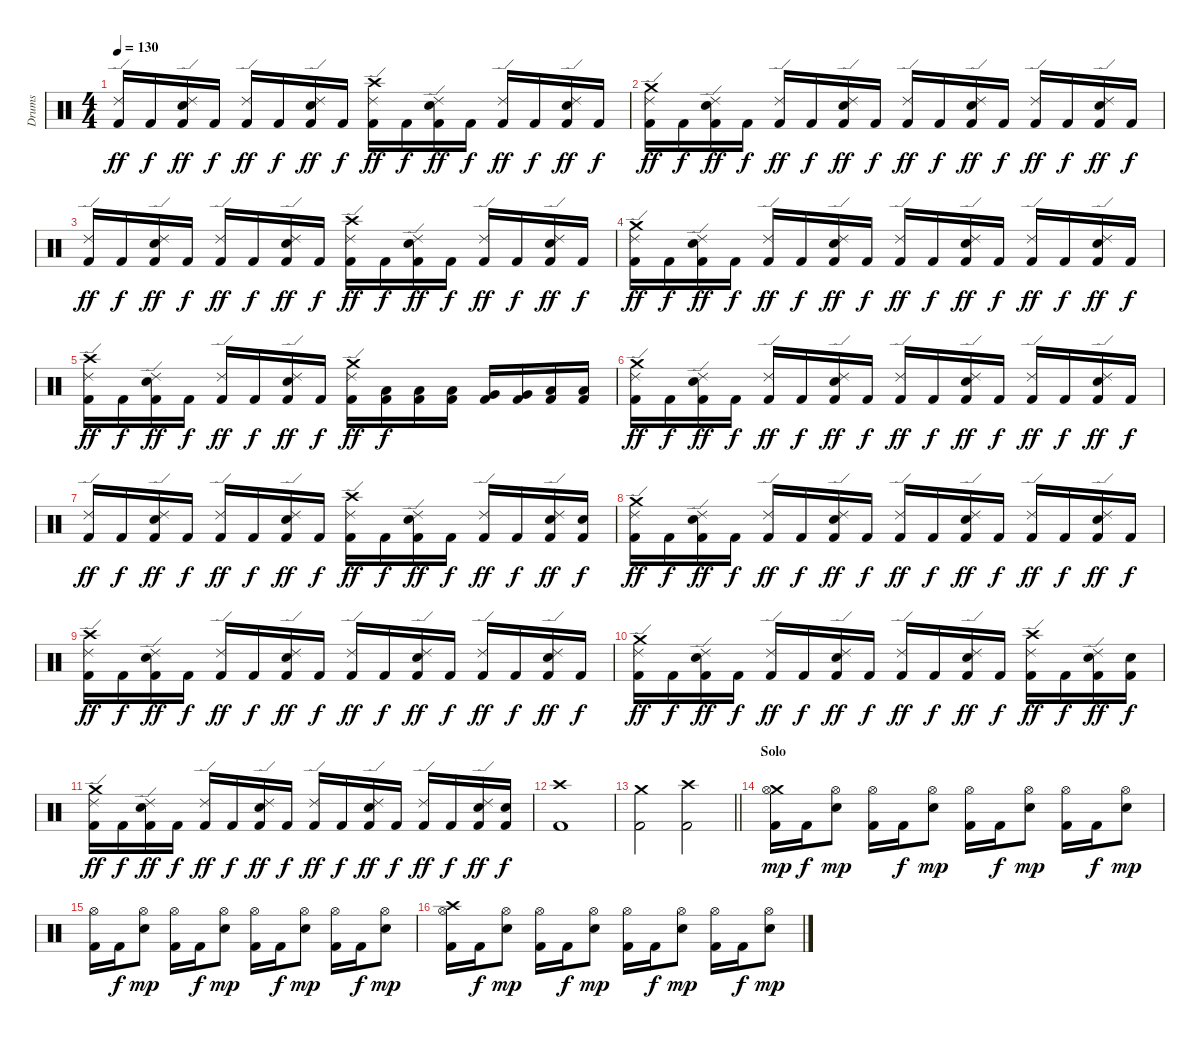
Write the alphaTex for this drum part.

\track ("Drums" "Drums") {instrument percussion}
\staff {score}
\articulation defaults
\ts (4 4)
\tempo 130
\clef neutral
\ks c
("Ride (edge) 2" "Kick (hit) 2").16{dy ff} "Kick (hit) 2".16{dy f} ("Ride (edge) 2" "Snare (hit) 2" "Kick (hit) 2").16{dy ff} "Kick (hit) 2".16{dy f} ("Ride (edge) 2" "Kick (hit) 2").16{dy ff} "Kick (hit) 2".16{dy f} ("Ride (edge) 2" "Snare (hit) 2" "Kick (hit) 2").16{dy ff} "Kick (hit) 2".16{dy f} ("Crash high (hit)" "Ride (edge) 2" "Kick (hit) 2").16{dy ff} "Kick (hit) 2".16{dy f} ("Ride (edge) 2" "Snare (hit) 2" "Kick (hit) 2").16{dy ff} "Kick (hit) 2".16{dy f} ("Ride (edge) 2" "Kick (hit) 2").16{dy ff} "Kick (hit) 2".16{dy f} ("Ride (edge) 2" "Snare (hit) 2" "Kick (hit) 2").16{dy ff} "Kick (hit) 2".16{dy f} |
("Crash medium (hit)" "Ride (edge) 2" "Kick (hit) 2").16{dy ff} "Kick (hit) 2".16{dy f} ("Ride (edge) 2" "Snare (hit) 2" "Kick (hit) 2").16{dy ff} "Kick (hit) 2".16{dy f} ("Ride (edge) 2" "Kick (hit) 2").16{dy ff} "Kick (hit) 2".16{dy f} ("Ride (edge) 2" "Snare (hit) 2" "Kick (hit) 2").16{dy ff} "Kick (hit) 2".16{dy f} ("Ride (edge) 2" "Kick (hit) 2").16{dy ff} "Kick (hit) 2".16{dy f} ("Ride (edge) 2" "Snare (hit) 2" "Kick (hit) 2").16{dy ff} "Kick (hit) 2".16{dy f} ("Ride (edge) 2" "Kick (hit) 2").16{dy ff} "Kick (hit) 2".16{dy f} ("Ride (edge) 2" "Snare (hit) 2" "Kick (hit) 2").16{dy ff} "Kick (hit) 2".16{dy f} |
("Ride (edge) 2" "Kick (hit) 2").16{dy ff} "Kick (hit) 2".16{dy f} ("Ride (edge) 2" "Snare (hit) 2" "Kick (hit) 2").16{dy ff} "Kick (hit) 2".16{dy f} ("Ride (edge) 2" "Kick (hit) 2").16{dy ff} "Kick (hit) 2".16{dy f} ("Ride (edge) 2" "Snare (hit) 2" "Kick (hit) 2").16{dy ff} "Kick (hit) 2".16{dy f} ("Crash high (hit)" "Ride (edge) 2" "Kick (hit) 2").16{dy ff} "Kick (hit) 2".16{dy f} ("Ride (edge) 2" "Snare (hit) 2" "Kick (hit) 2").16{dy ff} "Kick (hit) 2".16{dy f} ("Ride (edge) 2" "Kick (hit) 2").16{dy ff} "Kick (hit) 2".16{dy f} ("Ride (edge) 2" "Snare (hit) 2" "Kick (hit) 2").16{dy ff} "Kick (hit) 2".16{dy f} |
("Crash medium (hit)" "Ride (edge) 2" "Kick (hit) 2").16{dy ff} "Kick (hit) 2".16{dy f} ("Ride (edge) 2" "Snare (hit) 2" "Kick (hit) 2").16{dy ff} "Kick (hit) 2".16{dy f} ("Ride (edge) 2" "Kick (hit) 2").16{dy ff} "Kick (hit) 2".16{dy f} ("Ride (edge) 2" "Snare (hit) 2" "Kick (hit) 2").16{dy ff} "Kick (hit) 2".16{dy f} ("Ride (edge) 2" "Kick (hit) 2").16{dy ff} "Kick (hit) 2".16{dy f} ("Ride (edge) 2" "Snare (hit) 2" "Kick (hit) 2").16{dy ff} "Kick (hit) 2".16{dy f} ("Ride (edge) 2" "Kick (hit) 2").16{dy ff} "Kick (hit) 2".16{dy f} ("Ride (edge) 2" "Snare (hit) 2" "Kick (hit) 2").16{dy ff} "Kick (hit) 2".16{dy f} |
("Crash high (hit)" "Ride (edge) 2" "Kick (hit) 2").16{dy ff} "Kick (hit) 2".16{dy f} ("Ride (edge) 2" "Snare (hit) 2" "Kick (hit) 2").16{dy ff} "Kick (hit) 2".16{dy f} ("Ride (edge) 2" "Kick (hit) 2").16{dy ff} "Kick (hit) 2".16{dy f} ("Ride (edge) 2" "Snare (hit) 2" "Kick (hit) 2").16{dy ff} "Kick (hit) 2".16{dy f} ("Crash medium (hit)" "Ride (edge) 2" "Kick (hit) 2").16{dy ff} ("Low Tom (hit)" "Kick (hit) 2").16{dy f} ("Low Tom (hit)" "Kick (hit) 2").16 ("Low Tom (hit)" "Kick (hit) 2").16 ("Very Low Tom (hit)" "Kick (hit) 2").16 ("Very Low Tom (hit)" "Kick (hit) 2").16 ("Low Floor Tom (hit)" "Kick (hit) 2").16 ("Low Floor Tom (hit)" "Kick (hit) 2").16 |
("Crash medium (hit)" "Ride (edge) 2" "Kick (hit) 2").16{dy ff} "Kick (hit) 2".16{dy f} ("Ride (edge) 2" "Snare (hit) 2" "Kick (hit) 2").16{dy ff} "Kick (hit) 2".16{dy f} ("Ride (edge) 2" "Kick (hit) 2").16{dy ff} "Kick (hit) 2".16{dy f} ("Ride (edge) 2" "Snare (hit) 2" "Kick (hit) 2").16{dy ff} "Kick (hit) 2".16{dy f} ("Ride (edge) 2" "Kick (hit) 2").16{dy ff} "Kick (hit) 2".16{dy f} ("Ride (edge) 2" "Snare (hit) 2" "Kick (hit) 2").16{dy ff} "Kick (hit) 2".16{dy f} ("Ride (edge) 2" "Kick (hit) 2").16{dy ff} "Kick (hit) 2".16{dy f} ("Ride (edge) 2" "Snare (hit) 2" "Kick (hit) 2").16{dy ff} "Kick (hit) 2".16{dy f} |
("Ride (edge) 2" "Kick (hit) 2").16{dy ff} "Kick (hit) 2".16{dy f} ("Ride (edge) 2" "Snare (hit) 2" "Kick (hit) 2").16{dy ff} "Kick (hit) 2".16{dy f} ("Ride (edge) 2" "Kick (hit) 2").16{dy ff} "Kick (hit) 2".16{dy f} ("Ride (edge) 2" "Snare (hit) 2" "Kick (hit) 2").16{dy ff} "Kick (hit) 2".16{dy f} ("Crash high (hit)" "Ride (edge) 2" "Kick (hit) 2").16{dy ff} "Kick (hit) 2".16{dy f} ("Ride (edge) 2" "Snare (hit) 2" "Kick (hit) 2").16{dy ff} "Kick (hit) 2".16{dy f} ("Ride (edge) 2" "Kick (hit) 2").16{dy ff} "Kick (hit) 2".16{dy f} ("Ride (edge) 2" "Snare (hit) 2" "Kick (hit) 2").16{dy ff} ("Snare (hit) 2" "Kick (hit) 2").16{dy f} |
("Crash medium (hit)" "Ride (edge) 2" "Kick (hit) 2").16{dy ff} "Kick (hit) 2".16{dy f} ("Ride (edge) 2" "Snare (hit) 2" "Kick (hit) 2").16{dy ff} "Kick (hit) 2".16{dy f} ("Ride (edge) 2" "Kick (hit) 2").16{dy ff} "Kick (hit) 2".16{dy f} ("Ride (edge) 2" "Snare (hit) 2" "Kick (hit) 2").16{dy ff} "Kick (hit) 2".16{dy f} ("Ride (edge) 2" "Kick (hit) 2").16{dy ff} "Kick (hit) 2".16{dy f} ("Ride (edge) 2" "Snare (hit) 2" "Kick (hit) 2").16{dy ff} "Kick (hit) 2".16{dy f} ("Ride (edge) 2" "Kick (hit) 2").16{dy ff} "Kick (hit) 2".16{dy f} ("Ride (edge) 2" "Snare (hit) 2" "Kick (hit) 2").16{dy ff} "Kick (hit) 2".16{dy f} |
("Crash high (hit)" "Ride (edge) 2" "Kick (hit) 2").16{dy ff} "Kick (hit) 2".16{dy f} ("Ride (edge) 2" "Snare (hit) 2" "Kick (hit) 2").16{dy ff} "Kick (hit) 2".16{dy f} ("Ride (edge) 2" "Kick (hit) 2").16{dy ff} "Kick (hit) 2".16{dy f} ("Ride (edge) 2" "Snare (hit) 2" "Kick (hit) 2").16{dy ff} "Kick (hit) 2".16{dy f} ("Ride (edge) 2" "Kick (hit) 2").16{dy ff} "Kick (hit) 2".16{dy f} ("Ride (edge) 2" "Snare (hit) 2" "Kick (hit) 2").16{dy ff} "Kick (hit) 2".16{dy f} ("Ride (edge) 2" "Kick (hit) 2").16{dy ff} "Kick (hit) 2".16{dy f} ("Ride (edge) 2" "Snare (hit) 2" "Kick (hit) 2").16{dy ff} "Kick (hit) 2".16{dy f} |
("Crash medium (hit)" "Ride (edge) 2" "Kick (hit) 2").16{dy ff} "Kick (hit) 2".16{dy f} ("Ride (edge) 2" "Snare (hit) 2" "Kick (hit) 2").16{dy ff} "Kick (hit) 2".16{dy f} ("Ride (edge) 2" "Kick (hit) 2").16{dy ff} "Kick (hit) 2".16{dy f} ("Ride (edge) 2" "Snare (hit) 2" "Kick (hit) 2").16{dy ff} "Kick (hit) 2".16{dy f} ("Ride (edge) 2" "Kick (hit) 2").16{dy ff} "Kick (hit) 2".16{dy f} ("Ride (edge) 2" "Snare (hit) 2" "Kick (hit) 2").16{dy ff} "Kick (hit) 2".16{dy f} ("Crash high (hit)" "Ride (edge) 2" "Kick (hit) 2").16{dy ff} "Kick (hit) 2".16{dy f} ("Ride (edge) 2" "Snare (hit) 2" "Kick (hit) 2").16{dy ff} ("Snare (hit) 2" "Kick (hit) 2").16{dy f} |
("Crash medium (hit)" "Ride (edge) 2" "Kick (hit) 2").16{dy ff} "Kick (hit) 2".16{dy f} ("Ride (edge) 2" "Snare (hit) 2" "Kick (hit) 2").16{dy ff} "Kick (hit) 2".16{dy f} ("Ride (edge) 2" "Kick (hit) 2").16{dy ff} "Kick (hit) 2".16{dy f} ("Ride (edge) 2" "Snare (hit) 2" "Kick (hit) 2").16{dy ff} "Kick (hit) 2".16{dy f} ("Ride (edge) 2" "Kick (hit) 2").16{dy ff} "Kick (hit) 2".16{dy f} ("Ride (edge) 2" "Snare (hit) 2" "Kick (hit) 2").16{dy ff} "Kick (hit) 2".16{dy f} ("Ride (edge) 2" "Kick (hit) 2").16{dy ff} "Kick (hit) 2".16{dy f} ("Ride (edge) 2" "Snare (hit) 2" "Kick (hit) 2").16{dy ff} ("Snare (hit) 2" "Kick (hit) 2").16{dy f} |
("Crash high (hit)" "Kick (hit) 2").1 |
\barLineRight lightlight
("Crash medium (hit)" "Kick (hit) 2").2 ("Crash high (hit)" "Kick (hit) 2").2 |
\section ("" "Solo")
("Crash medium (hit)" "Hi-Hat (open)" "Kick (hit) 2").16{dy mp} "Kick (hit) 2".16{dy f} ("Hi-Hat (open)" "Snare (hit) 2").8{dy mp} ("Hi-Hat (open)" "Kick (hit) 2").16 "Kick (hit) 2".16{dy f} ("Hi-Hat (open)" "Snare (hit) 2").8{dy mp} ("Hi-Hat (open)" "Kick (hit) 2").16 "Kick (hit) 2".16{dy f} ("Hi-Hat (open)" "Snare (hit) 2").8{dy mp} ("Hi-Hat (open)" "Kick (hit) 2").16 "Kick (hit) 2".16{dy f} ("Hi-Hat (open)" "Snare (hit) 2").8{dy mp} |
("Hi-Hat (open)" "Kick (hit) 2").16 "Kick (hit) 2".16{dy f} ("Hi-Hat (open)" "Snare (hit) 2").8{dy mp} ("Hi-Hat (open)" "Kick (hit) 2").16 "Kick (hit) 2".16{dy f} ("Hi-Hat (open)" "Snare (hit) 2").8{dy mp} ("Hi-Hat (open)" "Kick (hit) 2").16 "Kick (hit) 2".16{dy f} ("Hi-Hat (open)" "Snare (hit) 2").8{dy mp} ("Hi-Hat (open)" "Kick (hit) 2").16 "Kick (hit) 2".16{dy f} ("Hi-Hat (open)" "Snare (hit) 2").8{dy mp} |
("Crash high (hit)" "Hi-Hat (open)" "Kick (hit) 2").16 "Kick (hit) 2".16{dy f} ("Hi-Hat (open)" "Snare (hit) 2").8{dy mp} ("Hi-Hat (open)" "Kick (hit) 2").16 "Kick (hit) 2".16{dy f} ("Hi-Hat (open)" "Snare (hit) 2").8{dy mp} ("Hi-Hat (open)" "Kick (hit) 2").16 "Kick (hit) 2".16{dy f} ("Hi-Hat (open)" "Snare (hit) 2").8{dy mp} ("Hi-Hat (open)" "Kick (hit) 2").16 "Kick (hit) 2".16{dy f} ("Hi-Hat (open)" "Snare (hit) 2").8{dy mp}
